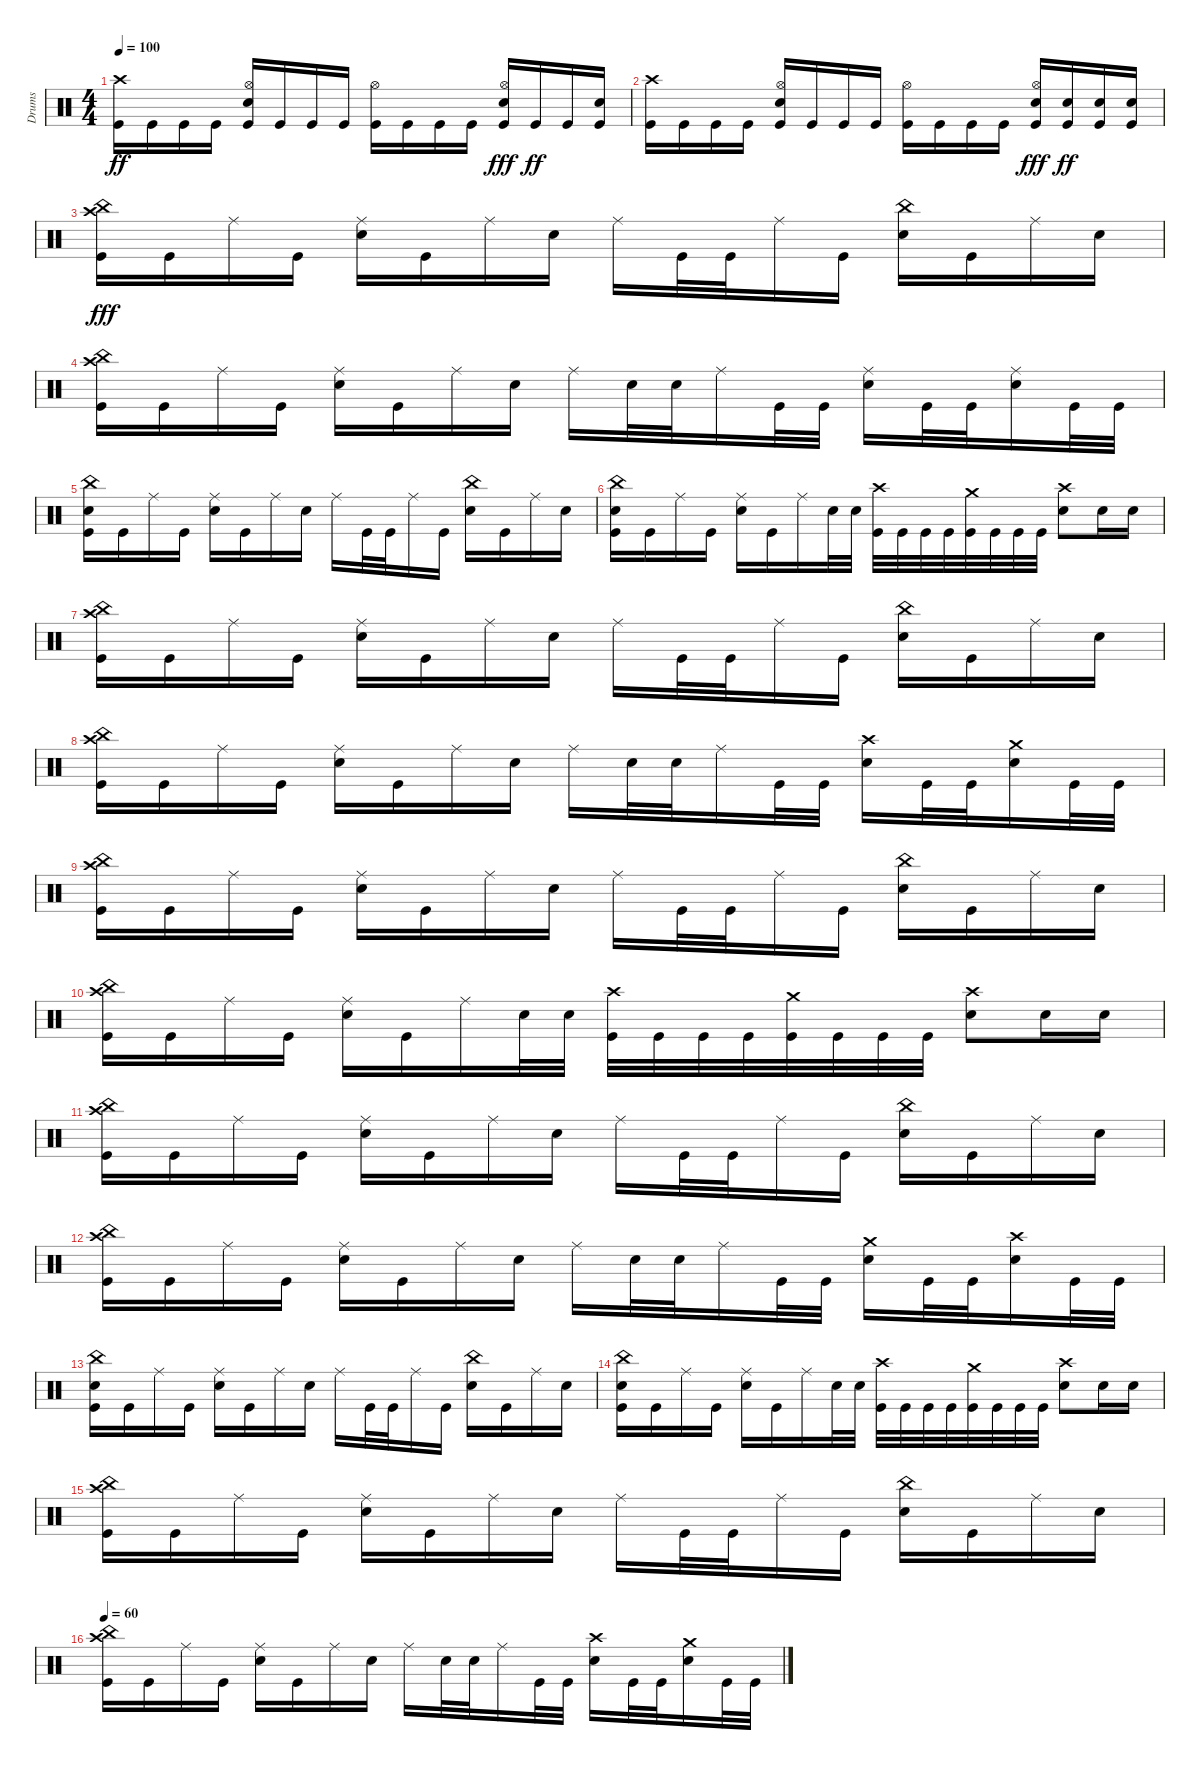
\track ("Drums" "Drums") {instrument percussion}
\staff {score}
\articulation defaults
\ts (4 4)
\tempo 100
\clef neutral
\ks c
("Crash high (hit)" "Kick (hit)").16{dy ff} "Kick (hit)".16 "Kick (hit)".16 "Kick (hit)".16 ("Hi-Hat (open)" "Kick (hit)" "Snare (hit) 2").16 "Kick (hit)".16 "Kick (hit)".16 "Kick (hit)".16 ("Hi-Hat (open)" "Kick (hit)").16 "Kick (hit)".16 "Kick (hit)".16 "Kick (hit)".16 ("Snare (hit) 2" "Kick (hit)" "Hi-Hat (open)").16{dy fff} "Kick (hit)".16{dy ff} "Kick (hit)".16 ("Snare (hit) 2" "Kick (hit)").16 |
("Crash high (hit)" "Kick (hit)").16 "Kick (hit)".16 "Kick (hit)".16 "Kick (hit)".16 ("Hi-Hat (open)" "Kick (hit)" "Snare (hit) 2").16 "Kick (hit)".16 "Kick (hit)".16 "Kick (hit)".16 ("Hi-Hat (open)" "Kick (hit)").16 "Kick (hit)".16 "Kick (hit)".16 "Kick (hit)".16 ("Snare (hit) 2" "Kick (hit)" "Hi-Hat (open)").16{dy fff} ("Snare (hit) 2" "Kick (hit)").16{dy ff} ("Snare (hit) 2" "Kick (hit)").16 ("Snare (hit) 2" "Kick (hit)").16 |
("Crash high (hit)" "Kick (hit)" "China (hit)").16{dy fff} "Kick (hit)".16 "Ride (middle)".16 "Kick (hit)".16 ("Ride (middle)" "Snare (hit) 2").16 "Kick (hit)".16 "Ride (middle)".16 "Snare (hit) 2".16 "Ride (middle)".16 "Kick (hit)".32 "Kick (hit)".32 "Ride (middle)".16 "Kick (hit)".16 ("China (hit)" "Snare (hit) 2").16 "Kick (hit)".16 "Ride (middle)".16 "Snare (hit) 2".16 |
("Crash high (hit)" "Kick (hit)" "China (hit)").16 "Kick (hit)".16 "Ride (middle)".16 "Kick (hit)".16 ("Ride (middle)" "Snare (hit) 2").16 "Kick (hit)".16 "Ride (middle)".16 "Snare (hit) 2".16 "Ride (middle)".16 "Snare (hit) 2".32 "Snare (hit) 2".32 "Ride (middle)".16 "Kick (hit)".32 "Kick (hit)".32 ("Ride (middle)" "Snare (hit) 2").16 "Kick (hit)".32 "Kick (hit)".32 ("Ride (middle)" "Snare (hit) 2").16 "Kick (hit)".32 "Kick (hit)".32 |
("Snare (hit)" "Kick (hit)" "China (hit)").16 "Kick (hit)".16 "Ride (middle)".16 "Kick (hit)".16 ("Ride (middle)" "Snare (hit) 2").16 "Kick (hit)".16 "Ride (middle)".16 "Snare (hit) 2".16 "Ride (middle)".16 "Kick (hit)".32 "Kick (hit)".32 "Ride (middle)".16 "Kick (hit)".16 ("China (hit)" "Snare (hit) 2").16 "Kick (hit)".16 "Ride (middle)".16 "Snare (hit) 2".16 |
("Snare (hit)" "Kick (hit)" "China (hit)").16 "Kick (hit)".16 "Ride (middle)".16 "Kick (hit)".16 ("Ride (middle)" "Snare (hit) 2").16 "Kick (hit)".16 "Ride (middle)".16 "Snare (hit) 2".32 "Snare (hit) 2".32 ("Crash high (hit)" "Kick (hit)").32 "Kick (hit)".32 "Kick (hit)".32 "Kick (hit)".32 ("Crash medium (hit)" "Kick (hit)").32 "Kick (hit)".32 "Kick (hit)".32 "Kick (hit)".32 ("Crash high (hit)" "Snare (hit) 2").8 "Snare (hit) 2".16 "Snare (hit) 2".16 |
("Crash high (hit)" "Kick (hit)" "China (hit)").16 "Kick (hit)".16 "Ride (middle)".16 "Kick (hit)".16 ("Ride (middle)" "Snare (hit) 2").16 "Kick (hit)".16 "Ride (middle)".16 "Snare (hit) 2".16 "Ride (middle)".16 "Kick (hit)".32 "Kick (hit)".32 "Ride (middle)".16 "Kick (hit)".16 ("China (hit)" "Snare (hit) 2").16 "Kick (hit)".16 "Ride (middle)".16 "Snare (hit) 2".16 |
("Crash high (hit)" "Kick (hit)" "China (hit)").16 "Kick (hit)".16 "Ride (middle)".16 "Kick (hit)".16 ("Ride (middle)" "Snare (hit) 2").16 "Kick (hit)".16 "Ride (middle)".16 "Snare (hit) 2".16 "Ride (middle)".16 "Snare (hit) 2".32 "Snare (hit) 2".32 "Ride (middle)".16 "Kick (hit)".32 "Kick (hit)".32 ("Crash high (hit)" "Snare (hit) 2").16 "Kick (hit)".32 "Kick (hit)".32 ("Crash medium (hit)" "Snare (hit) 2").16 "Kick (hit)".32 "Kick (hit)".32 |
("Crash high (hit)" "Kick (hit)" "China (hit)").16 "Kick (hit)".16 "Ride (middle)".16 "Kick (hit)".16 ("Ride (middle)" "Snare (hit) 2").16 "Kick (hit)".16 "Ride (middle)".16 "Snare (hit) 2".16 "Ride (middle)".16 "Kick (hit)".32 "Kick (hit)".32 "Ride (middle)".16 "Kick (hit)".16 ("China (hit)" "Snare (hit) 2").16 "Kick (hit)".16 "Ride (middle)".16 "Snare (hit) 2".16 |
("Crash high (hit)" "Kick (hit)" "China (hit)").16 "Kick (hit)".16 "Ride (middle)".16 "Kick (hit)".16 ("Ride (middle)" "Snare (hit) 2").16 "Kick (hit)".16 "Ride (middle)".16 "Snare (hit) 2".32 "Snare (hit) 2".32 ("Crash high (hit)" "Kick (hit)").32 "Kick (hit)".32 "Kick (hit)".32 "Kick (hit)".32 ("Crash medium (hit)" "Kick (hit)").32 "Kick (hit)".32 "Kick (hit)".32 "Kick (hit)".32 ("Crash high (hit)" "Snare (hit) 2").8 "Snare (hit) 2".16 "Snare (hit) 2".16 |
("Crash high (hit)" "Kick (hit)" "China (hit)").16 "Kick (hit)".16 "Ride (middle)".16 "Kick (hit)".16 ("Ride (middle)" "Snare (hit) 2").16 "Kick (hit)".16 "Ride (middle)".16 "Snare (hit) 2".16 "Ride (middle)".16 "Kick (hit)".32 "Kick (hit)".32 "Ride (middle)".16 "Kick (hit)".16 ("China (hit)" "Snare (hit) 2").16 "Kick (hit)".16 "Ride (middle)".16 "Snare (hit) 2".16 |
("Crash high (hit)" "Kick (hit)" "China (hit)").16 "Kick (hit)".16 "Ride (middle)".16 "Kick (hit)".16 ("Ride (middle)" "Snare (hit) 2").16 "Kick (hit)".16 "Ride (middle)".16 "Snare (hit) 2".16 "Ride (middle)".16 "Snare (hit) 2".32 "Snare (hit) 2".32 "Ride (middle)".16 "Kick (hit)".32 "Kick (hit)".32 ("Crash medium (hit)" "Snare (hit) 2").16 "Kick (hit)".32 "Kick (hit)".32 ("Crash high (hit)" "Snare (hit) 2").16 "Kick (hit)".32 "Kick (hit)".32 |
("Snare (hit)" "Kick (hit)" "China (hit)").16 "Kick (hit)".16 "Ride (middle)".16 "Kick (hit)".16 ("Ride (middle)" "Snare (hit) 2").16 "Kick (hit)".16 "Ride (middle)".16 "Snare (hit) 2".16 "Ride (middle)".16 "Kick (hit)".32 "Kick (hit)".32 "Ride (middle)".16 "Kick (hit)".16 ("China (hit)" "Snare (hit) 2").16 "Kick (hit)".16 "Ride (middle)".16 "Snare (hit) 2".16 |
("Snare (hit)" "Kick (hit)" "China (hit)").16 "Kick (hit)".16 "Ride (middle)".16 "Kick (hit)".16 ("Ride (middle)" "Snare (hit) 2").16 "Kick (hit)".16 "Ride (middle)".16 "Snare (hit) 2".32 "Snare (hit) 2".32 ("Crash high (hit)" "Kick (hit)").32 "Kick (hit)".32 "Kick (hit)".32 "Kick (hit)".32 ("Crash medium (hit)" "Kick (hit)").32 "Kick (hit)".32 "Kick (hit)".32 "Kick (hit)".32 ("Crash high (hit)" "Snare (hit) 2").8 "Snare (hit) 2".16 "Snare (hit) 2".16 |
("Crash high (hit)" "Kick (hit)" "China (hit)").16 "Kick (hit)".16 "Ride (middle)".16 "Kick (hit)".16 ("Ride (middle)" "Snare (hit) 2").16 "Kick (hit)".16 "Ride (middle)".16 "Snare (hit) 2".16 "Ride (middle)".16 "Kick (hit)".32 "Kick (hit)".32 "Ride (middle)".16 "Kick (hit)".16 ("China (hit)" "Snare (hit) 2").16 "Kick (hit)".16 "Ride (middle)".16 "Snare (hit) 2".16 |
\tempo 60
("Crash high (hit)" "Kick (hit)" "China (hit)").16 "Kick (hit)".16 "Ride (middle)".16 "Kick (hit)".16 ("Ride (middle)" "Snare (hit) 2").16 "Kick (hit)".16 "Ride (middle)".16 "Snare (hit) 2".16 "Ride (middle)".16 "Snare (hit) 2".32 "Snare (hit) 2".32 "Ride (middle)".16 "Kick (hit)".32 "Kick (hit)".32 ("Crash high (hit)" "Snare (hit) 2").16 "Kick (hit)".32 "Kick (hit)".32 ("Crash medium (hit)" "Snare (hit) 2").16 "Kick (hit)".32 "Kick (hit)".32
